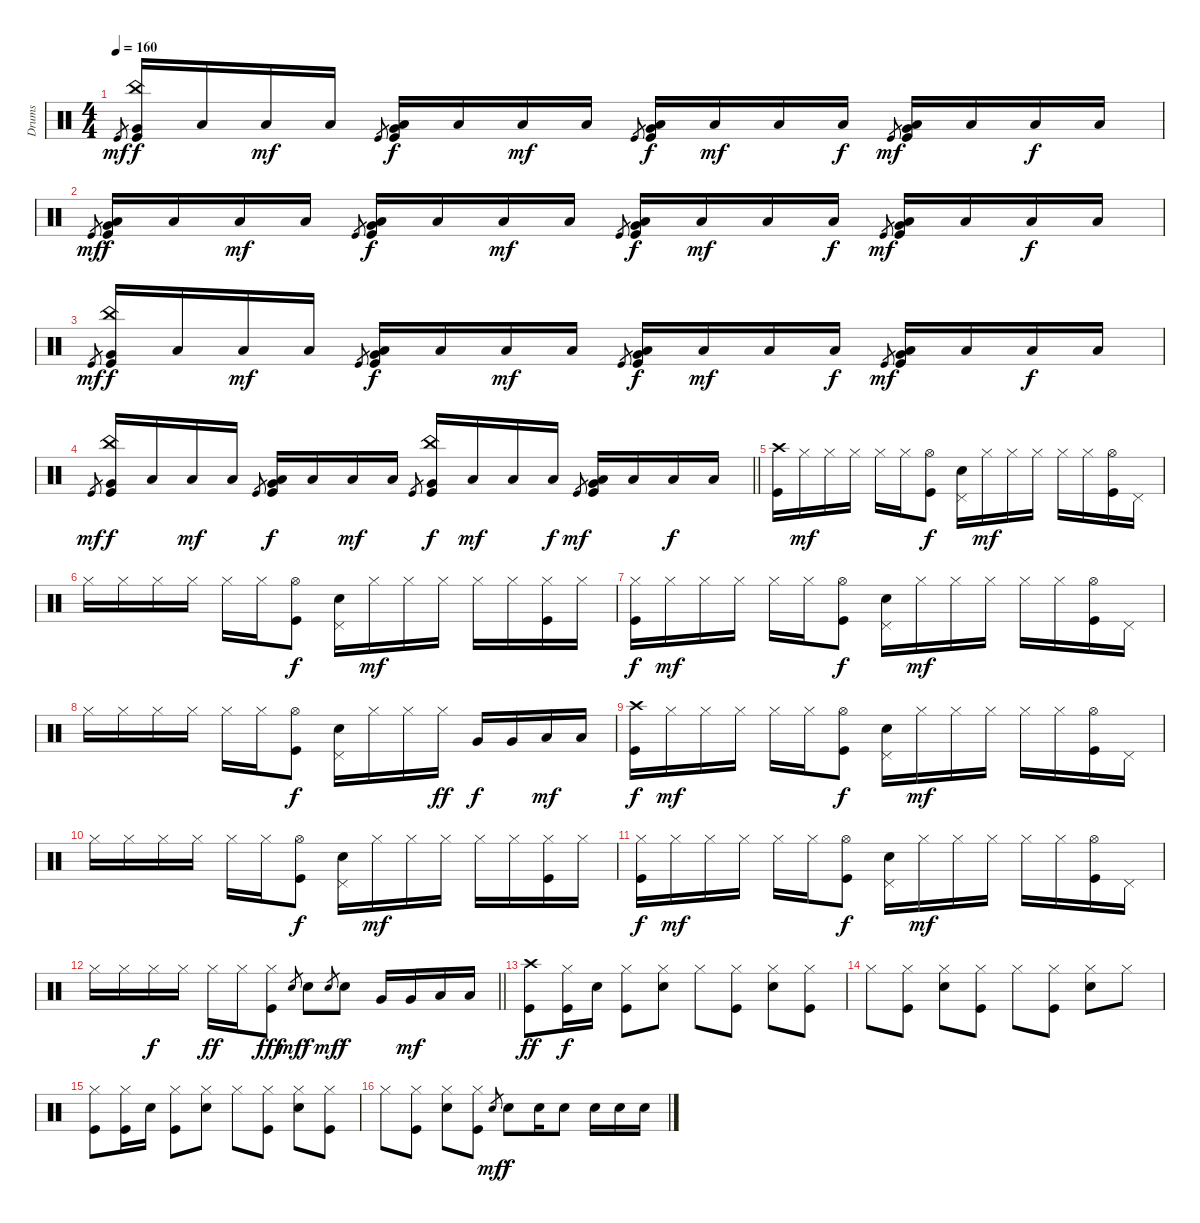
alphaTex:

\track ("Drums" "Drums") {instrument percussion}
\staff {score}
\articulation defaults
\ts (4 4)
\tempo 160
\clef neutral
\ks c "Kick (hit)".8{gr dy mf}
("China (hit)" "Very Low Tom (hit)" "Kick (hit)").16{dy f} "Low Floor Tom (hit)".16 "Low Floor Tom (hit)".16{dy mf} "Low Floor Tom (hit)".16 "Kick (hit)".8{gr} ("Low Floor Tom (hit)" "Very Low Tom (hit)" "Kick (hit)").16{dy f} "Low Floor Tom (hit)".16 "Low Floor Tom (hit)".16{dy mf} "Low Floor Tom (hit)".16 "Kick (hit)".8{gr} ("Low Floor Tom (hit)" "Very Low Tom (hit)" "Kick (hit)").16{dy f} "Low Floor Tom (hit)".16{dy mf} "Low Floor Tom (hit)".16 "Low Floor Tom (hit)".16{dy f} "Kick (hit)".8{gr dy mf} ("Low Floor Tom (hit)" "Very Low Tom (hit)" "Kick (hit)").16 "Low Floor Tom (hit)".16 "Low Floor Tom (hit)".16{dy f} "Low Floor Tom (hit)".16 |
"Kick (hit)".8{gr dy mf} ("Low Floor Tom (hit)" "Very Low Tom (hit)" "Kick (hit)").16{dy f} "Low Floor Tom (hit)".16 "Low Floor Tom (hit)".16{dy mf} "Low Floor Tom (hit)".16 "Kick (hit)".8{gr} ("Low Floor Tom (hit)" "Very Low Tom (hit)" "Kick (hit)").16{dy f} "Low Floor Tom (hit)".16 "Low Floor Tom (hit)".16{dy mf} "Low Floor Tom (hit)".16 "Kick (hit)".8{gr} ("Low Floor Tom (hit)" "Very Low Tom (hit)" "Kick (hit)").16{dy f} "Low Floor Tom (hit)".16{dy mf} "Low Floor Tom (hit)".16 "Low Floor Tom (hit)".16{dy f} "Kick (hit)".8{gr dy mf} ("Low Floor Tom (hit)" "Very Low Tom (hit)" "Kick (hit)").16 "Low Floor Tom (hit)".16 "Low Floor Tom (hit)".16{dy f} "Low Floor Tom (hit)".16 |
"Kick (hit)".8{gr dy mf} ("China (hit)" "Very Low Tom (hit)" "Kick (hit)").16{dy f} "Low Floor Tom (hit)".16 "Low Floor Tom (hit)".16{dy mf} "Low Floor Tom (hit)".16 "Kick (hit)".8{gr} ("Low Floor Tom (hit)" "Very Low Tom (hit)" "Kick (hit)").16{dy f} "Low Floor Tom (hit)".16 "Low Floor Tom (hit)".16{dy mf} "Low Floor Tom (hit)".16 "Kick (hit)".8{gr} ("Low Floor Tom (hit)" "Very Low Tom (hit)" "Kick (hit)").16{dy f} "Low Floor Tom (hit)".16{dy mf} "Low Floor Tom (hit)".16 "Low Floor Tom (hit)".16{dy f} "Kick (hit)".8{gr dy mf} ("Low Floor Tom (hit)" "Very Low Tom (hit)" "Kick (hit)").16 "Low Floor Tom (hit)".16 "Low Floor Tom (hit)".16{dy f} "Low Floor Tom (hit)".16 |
\barLineRight lightlight "Kick (hit)".8{gr dy mf}
("China (hit)" "Very Low Tom (hit)" "Kick (hit)").16{dy f} "Low Floor Tom (hit)".16 "Low Floor Tom (hit)".16{dy mf} "Low Floor Tom (hit)".16 "Kick (hit)".8{gr} ("Low Floor Tom (hit)" "Very Low Tom (hit)" "Kick (hit)").16{dy f} "Low Floor Tom (hit)".16 "Low Floor Tom (hit)".16{dy mf} "Low Floor Tom (hit)".16 "Kick (hit)".8{gr} ("China (hit)" "Very Low Tom (hit)" "Kick (hit)").16{dy f} "Low Floor Tom (hit)".16{dy mf} "Low Floor Tom (hit)".16 "Low Floor Tom (hit)".16{dy f} "Kick (hit)".8{gr dy mf} ("Low Floor Tom (hit)" "Very Low Tom (hit)" "Kick (hit)").16 "Low Floor Tom (hit)".16 "Low Floor Tom (hit)".16{dy f} "Low Floor Tom (hit)".16 |
("Crash high (hit)" "Kick (hit)").16 "Hi-Hat (closed)".16{dy mf} "Hi-Hat (closed)".16 "Hi-Hat (closed)".16 "Hi-Hat (closed)".16 "Hi-Hat (closed)".16 ("Hi-Hat (open)" "Kick (hit)").8{dy f} ("Pedal Hi-Hat (hit)" "Snare (hit) 2").16 "Hi-Hat (closed)".16{dy mf} "Hi-Hat (closed)".16 "Hi-Hat (closed)".16 "Hi-Hat (closed)".16 "Hi-Hat (closed)".16 ("Hi-Hat (open)" "Kick (hit)").16 "Pedal Hi-Hat (hit)".16 |
"Hi-Hat (closed)".16 "Hi-Hat (closed)".16 "Hi-Hat (closed)".16 "Hi-Hat (closed)".16 "Hi-Hat (closed)".16 "Hi-Hat (closed)".16 ("Hi-Hat (open)" "Kick (hit)").8{dy f} ("Pedal Hi-Hat (hit)" "Snare (hit) 2").16 "Hi-Hat (closed)".16{dy mf} "Hi-Hat (closed)".16 "Hi-Hat (closed)".16 "Hi-Hat (closed)".16 "Hi-Hat (closed)".16 ("Hi-Hat (closed)" "Kick (hit)").16 "Hi-Hat (closed)".16 |
("Hi-Hat (closed)" "Kick (hit)").16{dy f} "Hi-Hat (closed)".16{dy mf} "Hi-Hat (closed)".16 "Hi-Hat (closed)".16 "Hi-Hat (closed)".16 "Hi-Hat (closed)".16 ("Hi-Hat (open)" "Kick (hit)").8{dy f} ("Pedal Hi-Hat (hit)" "Snare (hit) 2").16 "Hi-Hat (closed)".16{dy mf} "Hi-Hat (closed)".16 "Hi-Hat (closed)".16 "Hi-Hat (closed)".16 "Hi-Hat (closed)".16 ("Hi-Hat (open)" "Kick (hit)").16 "Pedal Hi-Hat (hit)".16 |
"Hi-Hat (closed)".16 "Hi-Hat (closed)".16 "Hi-Hat (closed)".16 "Hi-Hat (closed)".16 "Hi-Hat (closed)".16 "Hi-Hat (closed)".16 ("Hi-Hat (open)" "Kick (hit)").8{dy f} ("Pedal Hi-Hat (hit)" "Snare (hit) 2").16 "Hi-Hat (closed)".16 "Hi-Hat (closed)".16 "Hi-Hat (closed)".16{dy ff} "Very Low Tom (hit)".16{dy f} "Very Low Tom (hit)".16 "Low Floor Tom (hit)".16{dy mf} "Low Floor Tom (hit)".16 |
("Crash high (hit)" "Kick (hit)").16{dy f} "Hi-Hat (closed)".16{dy mf} "Hi-Hat (closed)".16 "Hi-Hat (closed)".16 "Hi-Hat (closed)".16 "Hi-Hat (closed)".16 ("Hi-Hat (open)" "Kick (hit)").8{dy f} ("Pedal Hi-Hat (hit)" "Snare (hit) 2").16 "Hi-Hat (closed)".16{dy mf} "Hi-Hat (closed)".16 "Hi-Hat (closed)".16 "Hi-Hat (closed)".16 "Hi-Hat (closed)".16 ("Hi-Hat (open)" "Kick (hit)").16 "Pedal Hi-Hat (hit)".16 |
"Hi-Hat (closed)".16 "Hi-Hat (closed)".16 "Hi-Hat (closed)".16 "Hi-Hat (closed)".16 "Hi-Hat (closed)".16 "Hi-Hat (closed)".16 ("Hi-Hat (open)" "Kick (hit)").8{dy f} ("Pedal Hi-Hat (hit)" "Snare (hit) 2").16 "Hi-Hat (closed)".16{dy mf} "Hi-Hat (closed)".16 "Hi-Hat (closed)".16 "Hi-Hat (closed)".16 "Hi-Hat (closed)".16 ("Hi-Hat (closed)" "Kick (hit)").16 "Hi-Hat (closed)".16 |
("Hi-Hat (closed)" "Kick (hit)").16{dy f} "Hi-Hat (closed)".16{dy mf} "Hi-Hat (closed)".16 "Hi-Hat (closed)".16 "Hi-Hat (closed)".16 "Hi-Hat (closed)".16 ("Hi-Hat (open)" "Kick (hit)").8{dy f} ("Pedal Hi-Hat (hit)" "Snare (hit) 2").16 "Hi-Hat (closed)".16{dy mf} "Hi-Hat (closed)".16 "Hi-Hat (closed)".16 "Hi-Hat (closed)".16 "Hi-Hat (closed)".16 ("Hi-Hat (open)" "Kick (hit)").16 "Pedal Hi-Hat (hit)".16 |
\barLineRight lightlight "Hi-Hat (closed)".16 "Hi-Hat (closed)".16 "Hi-Hat (closed)".16{dy f} "Hi-Hat (closed)".16 "Hi-Hat (closed)".16{dy ff} "Hi-Hat (closed)".16
("Hi-Hat (closed)" "Kick (hit)").8{dy fff} "Snare (hit) 2".8{gr dy mf} "Snare (hit) 2".8{dy f} "Snare (hit) 2".8{gr dy mf} "Snare (hit) 2".8{dy f} "Very Low Tom (hit)".16 "Very Low Tom (hit)".16{dy mf} "Low Floor Tom (hit)".16 "Low Floor Tom (hit)".16 |
("Crash high (hit)" "Kick (hit)").8{dy ff} ("Hi-Hat (closed)" "Kick (hit)").16{dy f} "Snare (hit) 2".16 ("Hi-Hat (closed)" "Kick (hit)").8 ("Hi-Hat (closed)" "Snare (hit) 2").8 "Hi-Hat (closed)".8 ("Hi-Hat (closed)" "Kick (hit)").8 ("Hi-Hat (closed)" "Snare (hit) 2").8 ("Hi-Hat (closed)" "Kick (hit)").8 |
"Hi-Hat (closed)".8 ("Hi-Hat (closed)" "Kick (hit)").8 ("Hi-Hat (closed)" "Snare (hit) 2").8 ("Hi-Hat (closed)" "Kick (hit)").8 "Hi-Hat (closed)".8 ("Hi-Hat (closed)" "Kick (hit)").8 ("Hi-Hat (closed)" "Snare (hit) 2").8 "Hi-Hat (closed)".8 |
("Hi-Hat (closed)" "Kick (hit)").8 ("Hi-Hat (closed)" "Kick (hit)").16 "Snare (hit) 2".16 ("Hi-Hat (closed)" "Kick (hit)").8 ("Hi-Hat (closed)" "Snare (hit) 2").8 "Hi-Hat (closed)".8 ("Hi-Hat (closed)" "Kick (hit)").8 ("Hi-Hat (closed)" "Snare (hit) 2").8 ("Hi-Hat (closed)" "Kick (hit)").8 |
"Hi-Hat (closed)".8 ("Hi-Hat (closed)" "Kick (hit)").8 ("Hi-Hat (closed)" "Snare (hit) 2").8 ("Hi-Hat (closed)" "Kick (hit)").8 "Snare (hit) 2".8{gr dy mf} "Snare (hit) 2".8{dy f} "Snare (hit) 2".16 "Snare (hit) 2".8 "Snare (hit) 2".16 "Snare (hit) 2".16 "Snare (hit) 2".16
